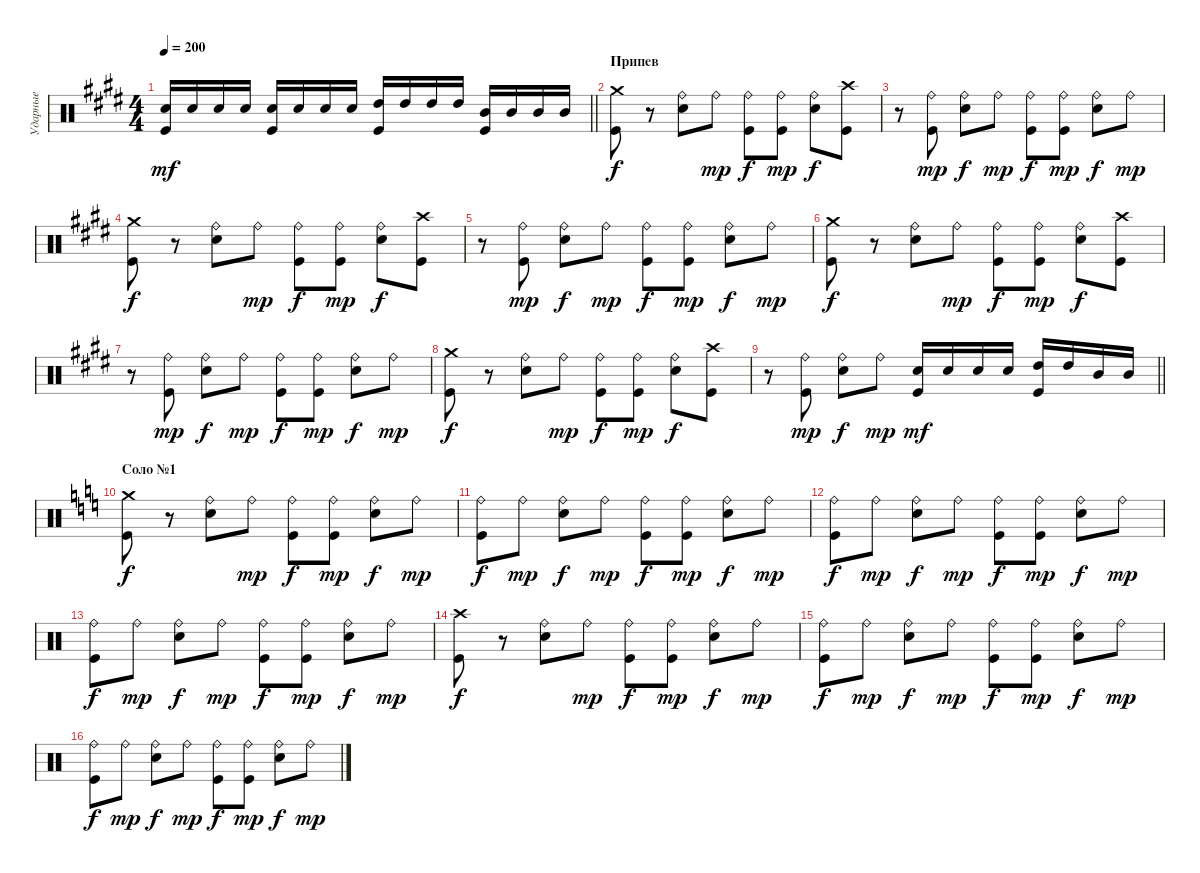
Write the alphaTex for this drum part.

\track ("Ударные" "Ударные") {instrument percussion}
\staff {score}
\articulation defaults
\ts (4 4)
\tempo 200
\clef neutral
\barLineRight lightlight
\ks c#minor
("Electric Snare (hit)" "Kick (hit)").16{dy mf} "Electric Snare (hit)".16 "Electric Snare (hit)".16 "Electric Snare (hit)".16 ("Electric Snare (hit)" "Kick (hit)").16 "Electric Snare (hit)".16 "Electric Snare (hit)".16 "Electric Snare (hit)".16 ("High Tom (hit)" "Kick (hit)").16 "High Tom (hit)".16 "High Tom (hit)".16 "High Tom (hit)".16 ("Mid Tom (hit)" "Kick (hit)").16 "Mid Tom (hit)".16 "Mid Tom (hit)".16 "Mid Tom (hit)".16 |
\section ("" "Припев")
("Crash medium (hit)" "Kick (hit)").8{dy f} r.8 ("Ride (bell)" "Electric Snare (hit)").8 "Ride (bell)".8{dy mp} ("Ride (bell)" "Kick (hit)").8{dy f} ("Ride (bell)" "Kick (hit)").8{dy mp} ("Ride (bell)" "Electric Snare (hit)").8{dy f} ("Crash high (hit)" "Kick (hit)").8 |
r.8 ("Ride (bell)" "Kick (hit)").8{dy mp} ("Ride (bell)" "Electric Snare (hit)").8{dy f} "Ride (bell)".8{dy mp} ("Ride (bell)" "Kick (hit)").8{dy f} ("Ride (bell)" "Kick (hit)").8{dy mp} ("Ride (bell)" "Electric Snare (hit)").8{dy f} "Ride (bell)".8{dy mp} |
("Crash medium (hit)" "Kick (hit)").8{dy f} r.8 ("Ride (bell)" "Electric Snare (hit)").8 "Ride (bell)".8{dy mp} ("Ride (bell)" "Kick (hit)").8{dy f} ("Ride (bell)" "Kick (hit)").8{dy mp} ("Ride (bell)" "Electric Snare (hit)").8{dy f} ("Crash high (hit)" "Kick (hit)").8 |
r.8 ("Ride (bell)" "Kick (hit)").8{dy mp} ("Ride (bell)" "Electric Snare (hit)").8{dy f} "Ride (bell)".8{dy mp} ("Ride (bell)" "Kick (hit)").8{dy f} ("Ride (bell)" "Kick (hit)").8{dy mp} ("Ride (bell)" "Electric Snare (hit)").8{dy f} "Ride (bell)".8{dy mp} |
("Crash medium (hit)" "Kick (hit)").8{dy f} r.8 ("Ride (bell)" "Electric Snare (hit)").8 "Ride (bell)".8{dy mp} ("Ride (bell)" "Kick (hit)").8{dy f} ("Ride (bell)" "Kick (hit)").8{dy mp} ("Ride (bell)" "Electric Snare (hit)").8{dy f} ("Crash high (hit)" "Kick (hit)").8 |
r.8 ("Ride (bell)" "Kick (hit)").8{dy mp} ("Ride (bell)" "Electric Snare (hit)").8{dy f} "Ride (bell)".8{dy mp} ("Ride (bell)" "Kick (hit)").8{dy f} ("Ride (bell)" "Kick (hit)").8{dy mp} ("Ride (bell)" "Electric Snare (hit)").8{dy f} "Ride (bell)".8{dy mp} |
("Crash medium (hit)" "Kick (hit)").8{dy f} r.8 ("Ride (bell)" "Electric Snare (hit)").8 "Ride (bell)".8{dy mp} ("Ride (bell)" "Kick (hit)").8{dy f} ("Ride (bell)" "Kick (hit)").8{dy mp} ("Ride (bell)" "Electric Snare (hit)").8{dy f} ("Crash high (hit)" "Kick (hit)").8 |
\barLineRight lightlight
r.8 ("Ride (bell)" "Kick (hit)").8{dy mp} ("Ride (bell)" "Electric Snare (hit)").8{dy f} "Ride (bell)".8{dy mp} ("Electric Snare (hit)" "Kick (hit)").16{dy mf} "Electric Snare (hit)".16 "Electric Snare (hit)".16 "Electric Snare (hit)".16 ("High Tom (hit)" "Kick (hit)").16 "High Tom (hit)".16 "Mid Tom (hit)".16 "Mid Tom (hit)".16 |
\section ("" "Соло №1")
\ks c
("Crash medium (hit)" "Kick (hit)").8{dy f} r.8 ("Ride (bell)" "Electric Snare (hit)").8 "Ride (bell)".8{dy mp} ("Ride (bell)" "Kick (hit)").8{dy f} ("Ride (bell)" "Kick (hit)").8{dy mp} ("Ride (bell)" "Electric Snare (hit)").8{dy f} "Ride (bell)".8{dy mp} |
("Ride (bell)" "Kick (hit)").8{dy f} "Ride (bell)".8{dy mp} ("Ride (bell)" "Electric Snare (hit)").8{dy f} "Ride (bell)".8{dy mp} ("Ride (bell)" "Kick (hit)").8{dy f} ("Ride (bell)" "Kick (hit)").8{dy mp} ("Ride (bell)" "Electric Snare (hit)").8{dy f} "Ride (bell)".8{dy mp} |
("Ride (bell)" "Kick (hit)").8{dy f} "Ride (bell)".8{dy mp} ("Ride (bell)" "Electric Snare (hit)").8{dy f} "Ride (bell)".8{dy mp} ("Ride (bell)" "Kick (hit)").8{dy f} ("Ride (bell)" "Kick (hit)").8{dy mp} ("Ride (bell)" "Electric Snare (hit)").8{dy f} "Ride (bell)".8{dy mp} |
("Ride (bell)" "Kick (hit)").8{dy f} "Ride (bell)".8{dy mp} ("Ride (bell)" "Electric Snare (hit)").8{dy f} "Ride (bell)".8{dy mp} ("Ride (bell)" "Kick (hit)").8{dy f} ("Ride (bell)" "Kick (hit)").8{dy mp} ("Ride (bell)" "Electric Snare (hit)").8{dy f} "Ride (bell)".8{dy mp} |
("Crash high (hit)" "Kick (hit)").8{dy f} r.8 ("Ride (bell)" "Electric Snare (hit)").8 "Ride (bell)".8{dy mp} ("Ride (bell)" "Kick (hit)").8{dy f} ("Ride (bell)" "Kick (hit)").8{dy mp} ("Ride (bell)" "Electric Snare (hit)").8{dy f} "Ride (bell)".8{dy mp} |
("Ride (bell)" "Kick (hit)").8{dy f} "Ride (bell)".8{dy mp} ("Ride (bell)" "Electric Snare (hit)").8{dy f} "Ride (bell)".8{dy mp} ("Ride (bell)" "Kick (hit)").8{dy f} ("Ride (bell)" "Kick (hit)").8{dy mp} ("Ride (bell)" "Electric Snare (hit)").8{dy f} "Ride (bell)".8{dy mp} |
("Ride (bell)" "Kick (hit)").8{dy f} "Ride (bell)".8{dy mp} ("Ride (bell)" "Electric Snare (hit)").8{dy f} "Ride (bell)".8{dy mp} ("Ride (bell)" "Kick (hit)").8{dy f} ("Ride (bell)" "Kick (hit)").8{dy mp} ("Ride (bell)" "Electric Snare (hit)").8{dy f} "Ride (bell)".8{dy mp}
